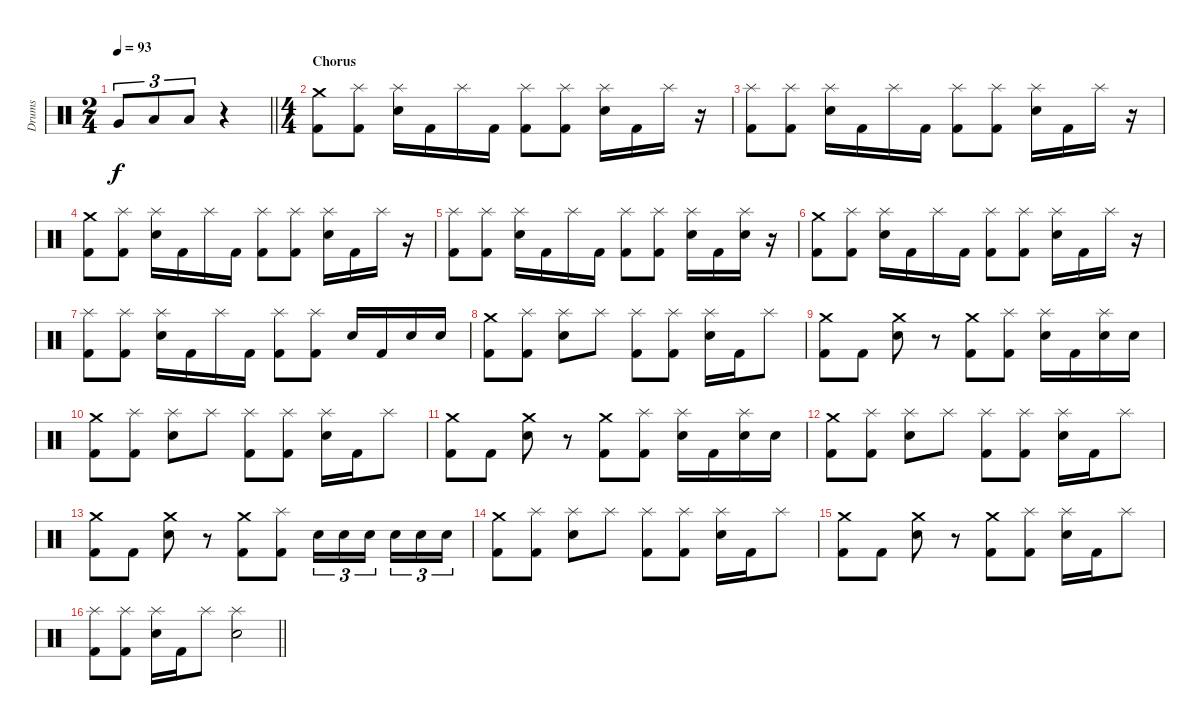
\track ("Drums" "Drums") {instrument percussion}
\staff {score}
\articulation defaults
\ts (2 4)
\tempo 93
\clef neutral
\barLineRight lightlight
\ks c "Very Low Tom (hit)".8{tu (3 2) dy f} "Low Tom (hit)".8{tu (3 2)} "Low Tom (hit)".8{tu (3 2)}
r.4 |
\ts (4 4)
\section ("" "Chorus")
("Crash medium (hit)" "Kick (hit) 2").8 ("Splash (hit)" "Kick (hit) 2").8 ("Splash (hit)" "Snare (hit) 2").16 "Kick (hit) 2".16 "Splash (hit)".16 "Kick (hit) 2".16 ("Splash (hit)" "Kick (hit) 2").8 ("Splash (hit)" "Kick (hit) 2").8 ("Splash (hit)" "Snare (hit) 2").16 "Kick (hit) 2".16 "Splash (hit)".16 r.16 |
("Splash (hit)" "Kick (hit) 2").8 ("Splash (hit)" "Kick (hit) 2").8 ("Splash (hit)" "Snare (hit) 2").16 "Kick (hit) 2".16 "Splash (hit)".16 "Kick (hit) 2".16 ("Splash (hit)" "Kick (hit) 2").8 ("Splash (hit)" "Kick (hit) 2").8 ("Splash (hit)" "Snare (hit) 2").16 "Kick (hit) 2".16 "Splash (hit)".16 r.16 |
("Crash medium (hit)" "Kick (hit) 2").8 ("Splash (hit)" "Kick (hit) 2").8 ("Splash (hit)" "Snare (hit) 2").16 "Kick (hit) 2".16 "Splash (hit)".16 "Kick (hit) 2".16 ("Splash (hit)" "Kick (hit) 2").8 ("Splash (hit)" "Kick (hit) 2").8 ("Splash (hit)" "Snare (hit) 2").16 "Kick (hit) 2".16 "Splash (hit)".16 r.16 |
("Splash (hit)" "Kick (hit) 2").8 ("Splash (hit)" "Kick (hit) 2").8 ("Splash (hit)" "Snare (hit) 2").16 "Kick (hit) 2".16 "Splash (hit)".16 "Kick (hit) 2".16 ("Splash (hit)" "Kick (hit) 2").8 ("Splash (hit)" "Kick (hit) 2").8 ("Splash (hit)" "Snare (hit) 2").16 "Kick (hit) 2".16 ("Splash (hit)" "Snare (hit) 2").16 r.16 |
("Crash medium (hit)" "Kick (hit) 2").8 ("Splash (hit)" "Kick (hit) 2").8 ("Splash (hit)" "Snare (hit) 2").16 "Kick (hit) 2".16 "Splash (hit)".16 "Kick (hit) 2".16 ("Splash (hit)" "Kick (hit) 2").8 ("Splash (hit)" "Kick (hit) 2").8 ("Splash (hit)" "Snare (hit) 2").16 "Kick (hit) 2".16 "Splash (hit)".16 r.16 |
("Splash (hit)" "Kick (hit) 2").8 ("Splash (hit)" "Kick (hit) 2").8 ("Splash (hit)" "Snare (hit) 2").16 "Kick (hit) 2".16 "Splash (hit)".16 "Kick (hit) 2".16 ("Splash (hit)" "Kick (hit) 2").8 ("Splash (hit)" "Kick (hit) 2").8 "Snare (hit) 2".16 "Kick (hit) 2".16 "Snare (hit) 2".16 "Snare (hit) 2".16 |
("Crash medium (hit)" "Kick (hit) 2").8 ("Splash (hit)" "Kick (hit) 2").8 ("Splash (hit)" "Snare (hit) 2").8 "Splash (hit)".8 ("Splash (hit)" "Kick (hit) 2").8 ("Splash (hit)" "Kick (hit) 2").8 ("Splash (hit)" "Snare (hit) 2").16 "Kick (hit) 2".16 "Splash (hit)".8 |
("Crash medium (hit)" "Kick (hit) 2").8 "Kick (hit) 2".8 ("Crash medium (hit)" "Snare (hit) 2").8 r.8 ("Crash medium (hit)" "Kick (hit) 2").8 ("Splash (hit)" "Kick (hit) 2").8 ("Splash (hit)" "Snare (hit) 2").16 "Kick (hit) 2".16 ("Splash (hit)" "Snare (hit) 2").16 "Snare (hit) 2".16 |
("Crash medium (hit)" "Kick (hit) 2").8 ("Splash (hit)" "Kick (hit) 2").8 ("Splash (hit)" "Snare (hit) 2").8 "Splash (hit)".8 ("Splash (hit)" "Kick (hit) 2").8 ("Splash (hit)" "Kick (hit) 2").8 ("Splash (hit)" "Snare (hit) 2").16 "Kick (hit) 2".16 "Splash (hit)".8 |
("Crash medium (hit)" "Kick (hit) 2").8 "Kick (hit) 2".8 ("Crash medium (hit)" "Snare (hit) 2").8 r.8 ("Crash medium (hit)" "Kick (hit) 2").8 ("Splash (hit)" "Kick (hit) 2").8 ("Splash (hit)" "Snare (hit) 2").16 "Kick (hit) 2".16 ("Splash (hit)" "Snare (hit) 2").16 "Snare (hit) 2".16 |
("Crash medium (hit)" "Kick (hit) 2").8 ("Splash (hit)" "Kick (hit) 2").8 ("Splash (hit)" "Snare (hit) 2").8 "Splash (hit)".8 ("Splash (hit)" "Kick (hit) 2").8 ("Splash (hit)" "Kick (hit) 2").8 ("Splash (hit)" "Snare (hit) 2").16 "Kick (hit) 2".16 "Splash (hit)".8 |
("Crash medium (hit)" "Kick (hit) 2").8 "Kick (hit) 2".8 ("Crash medium (hit)" "Snare (hit) 2").8 r.8 ("Crash medium (hit)" "Kick (hit) 2").8 ("Splash (hit)" "Kick (hit) 2").8 "Snare (hit) 2".16{tu (3 2)} "Snare (hit) 2".16{tu (3 2)} "Snare (hit) 2".16{tu (3 2) beam splitsecondary} "Snare (hit) 2".16{tu (3 2)} "Snare (hit) 2".16{tu (3 2)} "Snare (hit) 2".16{tu (3 2)} |
("Crash medium (hit)" "Kick (hit) 2").8 ("Splash (hit)" "Kick (hit) 2").8 ("Splash (hit)" "Snare (hit) 2").8 "Splash (hit)".8 ("Splash (hit)" "Kick (hit) 2").8 ("Splash (hit)" "Kick (hit) 2").8 ("Splash (hit)" "Snare (hit) 2").16 "Kick (hit) 2".16 "Splash (hit)".8 |
("Crash medium (hit)" "Kick (hit) 2").8 "Kick (hit) 2".8 ("Crash medium (hit)" "Snare (hit) 2").8 r.8 ("Crash medium (hit)" "Kick (hit) 2").8 ("Splash (hit)" "Kick (hit) 2").8 ("Splash (hit)" "Snare (hit) 2").16 "Kick (hit) 2".16 "Splash (hit)".8 |
\barLineRight lightlight
("Splash (hit)" "Kick (hit) 2").8 ("Splash (hit)" "Kick (hit) 2").8 ("Splash (hit)" "Snare (hit) 2").16 "Kick (hit) 2".16 "Splash (hit)".8 ("Splash (hit)" "Snare (hit) 2").2
